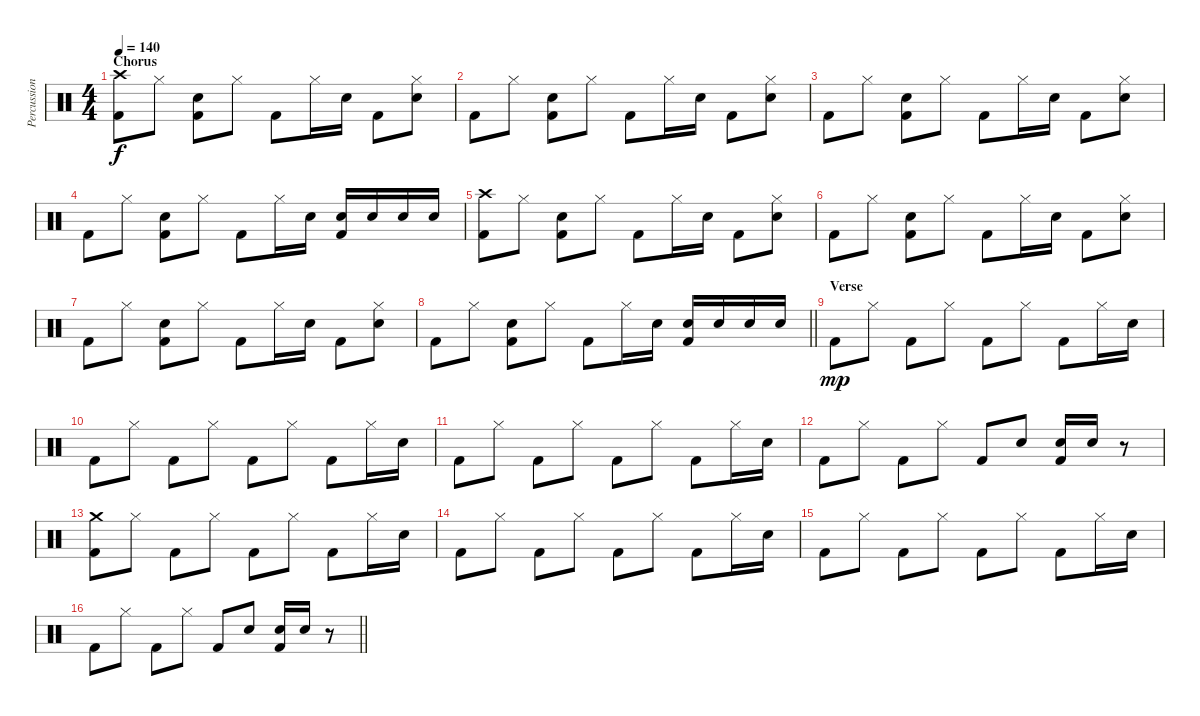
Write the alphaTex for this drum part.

\track ("Percussion" "Percussion") {instrument percussion}
\staff {score}
\articulation defaults
\ts (4 4)
\section ("" "Chorus")
\tempo 140
\clef neutral
\ks c
("Crash high (hit)" "Kick (hit) 2").8{dy f} "Hi-Hat (closed)".8 ("Electric Snare (hit)" "Kick (hit) 2").8 "Hi-Hat (closed)".8 "Kick (hit) 2".8 "Hi-Hat (closed)".16 "Electric Snare (hit)".16 "Kick (hit) 2".8 ("Hi-Hat (closed)" "Electric Snare (hit)").8 |
"Kick (hit) 2".8 "Hi-Hat (closed)".8 ("Electric Snare (hit)" "Kick (hit) 2").8 "Hi-Hat (closed)".8 "Kick (hit) 2".8 "Hi-Hat (closed)".16 "Electric Snare (hit)".16 "Kick (hit) 2".8 ("Hi-Hat (closed)" "Electric Snare (hit)").8 |
"Kick (hit) 2".8 "Hi-Hat (closed)".8 ("Electric Snare (hit)" "Kick (hit) 2").8 "Hi-Hat (closed)".8 "Kick (hit) 2".8 "Hi-Hat (closed)".16 "Electric Snare (hit)".16 "Kick (hit) 2".8 ("Hi-Hat (closed)" "Electric Snare (hit)").8 |
"Kick (hit) 2".8 "Hi-Hat (closed)".8 ("Electric Snare (hit)" "Kick (hit) 2").8 "Hi-Hat (closed)".8 "Kick (hit) 2".8 "Hi-Hat (closed)".16 "Electric Snare (hit)".16 ("Electric Snare (hit)" "Kick (hit) 2").16 "Electric Snare (hit)".16 "Electric Snare (hit)".16 "Electric Snare (hit)".16 |
("Crash high (hit)" "Kick (hit) 2").8 "Hi-Hat (closed)".8 ("Electric Snare (hit)" "Kick (hit) 2").8 "Hi-Hat (closed)".8 "Kick (hit) 2".8 "Hi-Hat (closed)".16 "Electric Snare (hit)".16 "Kick (hit) 2".8 ("Hi-Hat (closed)" "Electric Snare (hit)").8 |
"Kick (hit) 2".8 "Hi-Hat (closed)".8 ("Electric Snare (hit)" "Kick (hit) 2").8 "Hi-Hat (closed)".8 "Kick (hit) 2".8 "Hi-Hat (closed)".16 "Electric Snare (hit)".16 "Kick (hit) 2".8 ("Hi-Hat (closed)" "Electric Snare (hit)").8 |
"Kick (hit) 2".8 "Hi-Hat (closed)".8 ("Electric Snare (hit)" "Kick (hit) 2").8 "Hi-Hat (closed)".8 "Kick (hit) 2".8 "Hi-Hat (closed)".16 "Electric Snare (hit)".16 "Kick (hit) 2".8 ("Hi-Hat (closed)" "Electric Snare (hit)").8 |
\barLineRight lightlight "Kick (hit) 2".8 "Hi-Hat (closed)".8
("Electric Snare (hit)" "Kick (hit) 2").8 "Hi-Hat (closed)".8 "Kick (hit) 2".8 "Hi-Hat (closed)".16 "Electric Snare (hit)".16 ("Electric Snare (hit)" "Kick (hit) 2").16 "Electric Snare (hit)".16 "Electric Snare (hit)".16 "Electric Snare (hit)".16 |
\section ("" "Verse")
"Kick (hit) 2".8{dy mp} "Hi-Hat (closed)".8 "Kick (hit) 2".8 "Hi-Hat (closed)".8 "Kick (hit) 2".8 "Hi-Hat (closed)".8 "Kick (hit) 2".8 "Hi-Hat (closed)".16 "Electric Snare (hit)".16 |
"Kick (hit) 2".8 "Hi-Hat (closed)".8 "Kick (hit) 2".8 "Hi-Hat (closed)".8 "Kick (hit) 2".8 "Hi-Hat (closed)".8 "Kick (hit) 2".8 "Hi-Hat (closed)".16 "Electric Snare (hit)".16 |
"Kick (hit) 2".8 "Hi-Hat (closed)".8 "Kick (hit) 2".8 "Hi-Hat (closed)".8 "Kick (hit) 2".8 "Hi-Hat (closed)".8 "Kick (hit) 2".8 "Hi-Hat (closed)".16 "Electric Snare (hit)".16 |
"Kick (hit) 2".8 "Hi-Hat (closed)".8 "Kick (hit) 2".8 "Hi-Hat (closed)".8 "Kick (hit) 2".8 "Electric Snare (hit)".8 ("Electric Snare (hit)" "Kick (hit) 2").16 "Electric Snare (hit)".16 r.8 |
("Crash medium (hit)" "Kick (hit) 2").8 "Hi-Hat (closed)".8 "Kick (hit) 2".8 "Hi-Hat (closed)".8 "Kick (hit) 2".8 "Hi-Hat (closed)".8 "Kick (hit) 2".8 "Hi-Hat (closed)".16 "Electric Snare (hit)".16 |
"Kick (hit) 2".8 "Hi-Hat (closed)".8 "Kick (hit) 2".8 "Hi-Hat (closed)".8 "Kick (hit) 2".8 "Hi-Hat (closed)".8 "Kick (hit) 2".8 "Hi-Hat (closed)".16 "Electric Snare (hit)".16 |
"Kick (hit) 2".8 "Hi-Hat (closed)".8 "Kick (hit) 2".8 "Hi-Hat (closed)".8 "Kick (hit) 2".8 "Hi-Hat (closed)".8 "Kick (hit) 2".8 "Hi-Hat (closed)".16 "Electric Snare (hit)".16 |
\barLineRight lightlight "Kick (hit) 2".8 "Hi-Hat (closed)".8 "Kick (hit) 2".8 "Hi-Hat (closed)".8 "Kick (hit) 2".8 "Electric Snare (hit)".8
("Electric Snare (hit)" "Kick (hit) 2").16 "Electric Snare (hit)".16 r.8
